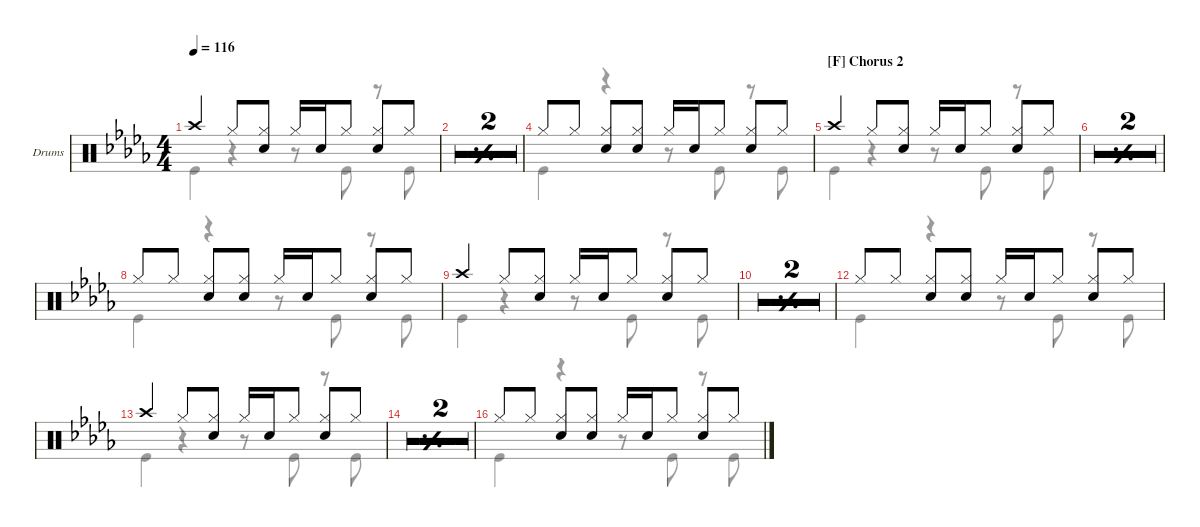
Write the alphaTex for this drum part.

\hideDynamics
\bracketExtendMode nobrackets
\firstSystemTrackNameOrientation horizontal
\otherSystemsTrackNameOrientation horizontal
\track ("Drums" "Drums") {multiBarRest instrument percussion}
\staff {score}
\articulation defaults
\voice
\ts (4 4)
\tempo 116
\clef neutral
\ks db "Crash high (hit)".4{dy mf} "Hi-Hat (closed)".8
("Hi-Hat (closed)" "Snare (hit) 2").8 "Hi-Hat (closed)".16 "Snare (hit) 2".16 "Hi-Hat (closed)".8 ("Hi-Hat (closed)" "Snare (hit) 2").8 "Hi-Hat (closed)".8 |
\simile simple
|
|
\simile none "Hi-Hat (closed)".8 "Hi-Hat (closed)".8
("Hi-Hat (closed)" "Snare (hit) 2").8 ("Hi-Hat (closed)" "Snare (hit) 2").8 "Hi-Hat (closed)".16 "Snare (hit) 2".16 "Hi-Hat (closed)".8 ("Hi-Hat (closed)" "Snare (hit) 2").8 "Hi-Hat (closed)".8 |
\section ("F" "Chorus 2")
"Crash high (hit)".4 "Hi-Hat (closed)".8 ("Hi-Hat (closed)" "Snare (hit) 2").8 "Hi-Hat (closed)".16 "Snare (hit) 2".16 "Hi-Hat (closed)".8 ("Hi-Hat (closed)" "Snare (hit) 2").8 "Hi-Hat (closed)".8 |
\simile simple
|
|
\simile none "Hi-Hat (closed)".8 "Hi-Hat (closed)".8
("Hi-Hat (closed)" "Snare (hit) 2").8 ("Hi-Hat (closed)" "Snare (hit) 2").8 "Hi-Hat (closed)".16 "Snare (hit) 2".16 "Hi-Hat (closed)".8 ("Hi-Hat (closed)" "Snare (hit) 2").8 "Hi-Hat (closed)".8 |
"Crash high (hit)".4 "Hi-Hat (closed)".8 ("Hi-Hat (closed)" "Snare (hit) 2").8 "Hi-Hat (closed)".16 "Snare (hit) 2".16 "Hi-Hat (closed)".8 ("Hi-Hat (closed)" "Snare (hit) 2").8 "Hi-Hat (closed)".8 |
\simile simple
|
|
\simile none "Hi-Hat (closed)".8 "Hi-Hat (closed)".8
("Hi-Hat (closed)" "Snare (hit) 2").8 ("Hi-Hat (closed)" "Snare (hit) 2").8 "Hi-Hat (closed)".16 "Snare (hit) 2".16 "Hi-Hat (closed)".8 ("Hi-Hat (closed)" "Snare (hit) 2").8 "Hi-Hat (closed)".8 |
"Crash high (hit)".4 "Hi-Hat (closed)".8 ("Hi-Hat (closed)" "Snare (hit) 2").8 "Hi-Hat (closed)".16 "Snare (hit) 2".16 "Hi-Hat (closed)".8 ("Hi-Hat (closed)" "Snare (hit) 2").8 "Hi-Hat (closed)".8 |
\simile simple
|
|
\simile none "Hi-Hat (closed)".8 "Hi-Hat (closed)".8
("Hi-Hat (closed)" "Snare (hit) 2").8 ("Hi-Hat (closed)" "Snare (hit) 2").8 "Hi-Hat (closed)".16 "Snare (hit) 2".16 "Hi-Hat (closed)".8 ("Hi-Hat (closed)" "Snare (hit) 2").8 "Hi-Hat (closed)".8
\voice
\clef neutral
\ottava regular
\simile none
\ks db "Kick (hit)".4{dy mf}
r.4 r.8 "Kick (hit)".8 r.8 "Kick (hit)".8 |
\simile simple
|
|
\simile none "Kick (hit)".4
r.4 r.8 "Kick (hit)".8 r.8 "Kick (hit)".8 |
"Kick (hit)".4 r.4 r.8 "Kick (hit)".8 r.8 "Kick (hit)".8 |
\simile simple
|
|
\simile none "Kick (hit)".4
r.4 r.8 "Kick (hit)".8 r.8 "Kick (hit)".8 |
"Kick (hit)".4 r.4 r.8 "Kick (hit)".8 r.8 "Kick (hit)".8 |
\simile simple
|
|
\simile none "Kick (hit)".4
r.4 r.8 "Kick (hit)".8 r.8 "Kick (hit)".8 |
"Kick (hit)".4 r.4 r.8 "Kick (hit)".8 r.8 "Kick (hit)".8 |
\simile simple
|
|
\simile none "Kick (hit)".4
r.4 r.8 "Kick (hit)".8 r.8 "Kick (hit)".8
